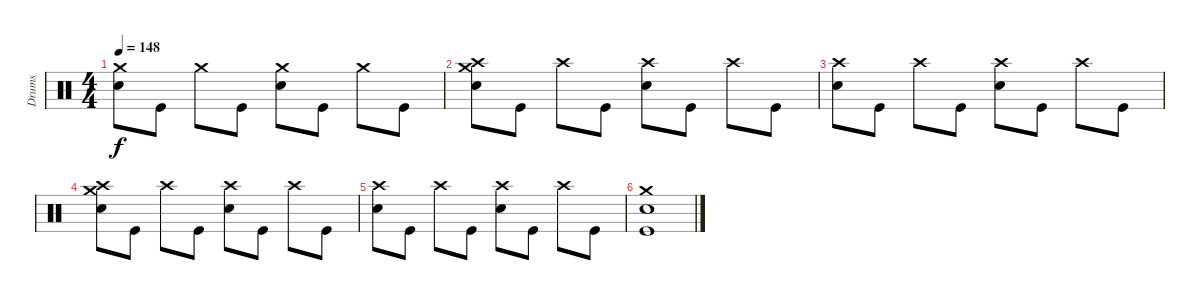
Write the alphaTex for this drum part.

\track ("Drums" "Drums") {instrument percussion}
\staff {score}
\articulation defaults
\ts (4 4)
\tempo 148
\clef neutral
\ks c
("Crash medium (hit)" "Electric Snare (hit)").8{dy f} "Kick (hit)".8 "Crash medium (hit)".8 "Kick (hit)".8 ("Crash medium (hit)" "Electric Snare (hit)").8 "Kick (hit)".8 "Crash medium (hit)".8 "Kick (hit)".8 |
("Crash medium (hit)" "Crash high (hit)" "Electric Snare (hit)").8 "Kick (hit)".8 "Crash high (hit)".8 "Kick (hit)".8 ("Crash high (hit)" "Electric Snare (hit)").8 "Kick (hit)".8 "Crash high (hit)".8 "Kick (hit)".8 |
("Crash high (hit)" "Electric Snare (hit)").8 "Kick (hit)".8 "Crash high (hit)".8 "Kick (hit)".8 ("Crash high (hit)" "Electric Snare (hit)").8 "Kick (hit)".8 "Crash high (hit)".8 "Kick (hit)".8 |
("Crash medium (hit)" "Crash high (hit)" "Electric Snare (hit)").8 "Kick (hit)".8 "Crash high (hit)".8 "Kick (hit)".8 ("Crash high (hit)" "Electric Snare (hit)").8 "Kick (hit)".8 "Crash high (hit)".8 "Kick (hit)".8 |
("Crash high (hit)" "Electric Snare (hit)").8 "Kick (hit)".8 "Crash high (hit)".8 "Kick (hit)".8 ("Crash high (hit)" "Electric Snare (hit)").8 "Kick (hit)".8 "Crash high (hit)".8 "Kick (hit)".8 |
("Crash medium (hit)" "Electric Snare (hit)" "Kick (hit)").1
